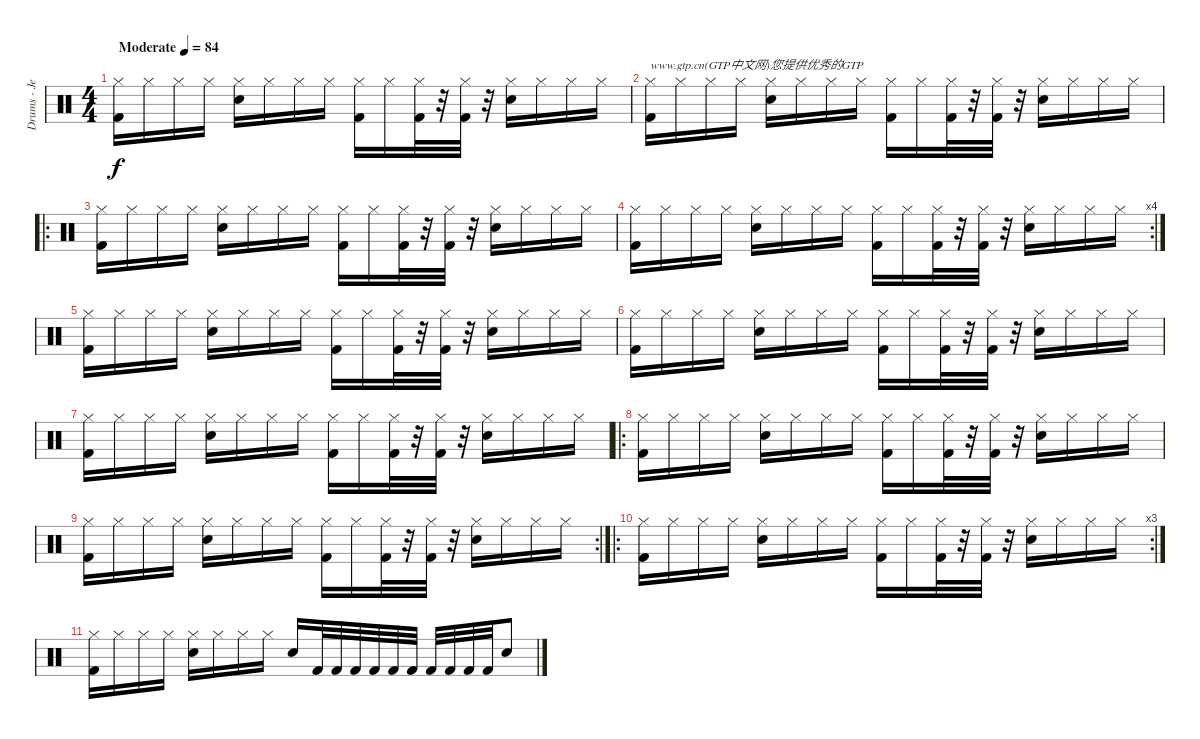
\track ("Drums - Jeff Campitelli" "Drums - Je") {instrument percussion}
\staff {score}
\articulation defaults
\ts (4 4)
\tempo (84 "Moderate")
\clef neutral
\ks c
("Kick (hit) 2" "Hi-Hat (closed)").16{dy f} "Hi-Hat (closed)".16 "Hi-Hat (closed)".16 "Hi-Hat (closed)".16 ("Electric Snare (hit)" "Hi-Hat (closed)").16 "Hi-Hat (closed)".16 "Hi-Hat (closed)".16 "Hi-Hat (closed)".16 ("Kick (hit) 2" "Hi-Hat (closed)").16 "Hi-Hat (closed)".16 ("Kick (hit) 2" "Hi-Hat (closed)").32 r.32 ("Kick (hit) 2" "Hi-Hat (closed)").32 r.32 ("Electric Snare (hit)" "Hi-Hat (closed)").16 "Hi-Hat (closed)".16 "Hi-Hat (closed)".16 "Hi-Hat (closed)".16 |
("Kick (hit) 2" "Hi-Hat (closed)").16{txt "www.gtp.cn(GTP中文网)您提供优秀的GTP"} "Hi-Hat (closed)".16 "Hi-Hat (closed)".16 "Hi-Hat (closed)".16 ("Electric Snare (hit)" "Hi-Hat (closed)").16 "Hi-Hat (closed)".16 "Hi-Hat (closed)".16 "Hi-Hat (closed)".16 ("Kick (hit) 2" "Hi-Hat (closed)").16 "Hi-Hat (closed)".16 ("Kick (hit) 2" "Hi-Hat (closed)").32 r.32 ("Kick (hit) 2" "Hi-Hat (closed)").32 r.32 ("Electric Snare (hit)" "Hi-Hat (closed)").16 "Hi-Hat (closed)".16 "Hi-Hat (closed)".16 "Hi-Hat (closed)".16 |
\ro
("Kick (hit) 2" "Hi-Hat (closed)").16 "Hi-Hat (closed)".16 "Hi-Hat (closed)".16 "Hi-Hat (closed)".16 ("Electric Snare (hit)" "Hi-Hat (closed)").16 "Hi-Hat (closed)".16 "Hi-Hat (closed)".16 "Hi-Hat (closed)".16 ("Kick (hit) 2" "Hi-Hat (closed)").16 "Hi-Hat (closed)".16 ("Kick (hit) 2" "Hi-Hat (closed)").32 r.32 ("Kick (hit) 2" "Hi-Hat (closed)").32 r.32 ("Electric Snare (hit)" "Hi-Hat (closed)").16 "Hi-Hat (closed)".16 "Hi-Hat (closed)".16 "Hi-Hat (closed)".16 |
\rc 4
("Kick (hit) 2" "Hi-Hat (closed)").16 "Hi-Hat (closed)".16 "Hi-Hat (closed)".16 "Hi-Hat (closed)".16 ("Electric Snare (hit)" "Hi-Hat (closed)").16 "Hi-Hat (closed)".16 "Hi-Hat (closed)".16 "Hi-Hat (closed)".16 ("Kick (hit) 2" "Hi-Hat (closed)").16 "Hi-Hat (closed)".16 ("Kick (hit) 2" "Hi-Hat (closed)").32 r.32 ("Kick (hit) 2" "Hi-Hat (closed)").32 r.32 ("Electric Snare (hit)" "Hi-Hat (closed)").16 "Hi-Hat (closed)".16 "Hi-Hat (closed)".16 "Hi-Hat (closed)".16 |
("Kick (hit) 2" "Hi-Hat (closed)").16 "Hi-Hat (closed)".16 "Hi-Hat (closed)".16 "Hi-Hat (closed)".16 ("Electric Snare (hit)" "Hi-Hat (closed)").16 "Hi-Hat (closed)".16 "Hi-Hat (closed)".16 "Hi-Hat (closed)".16 ("Kick (hit) 2" "Hi-Hat (closed)").16 "Hi-Hat (closed)".16 ("Kick (hit) 2" "Hi-Hat (closed)").32 r.32 ("Kick (hit) 2" "Hi-Hat (closed)").32 r.32 ("Electric Snare (hit)" "Hi-Hat (closed)").16 "Hi-Hat (closed)".16 "Hi-Hat (closed)".16 "Hi-Hat (closed)".16 |
("Kick (hit) 2" "Hi-Hat (closed)").16 "Hi-Hat (closed)".16 "Hi-Hat (closed)".16 "Hi-Hat (closed)".16 ("Electric Snare (hit)" "Hi-Hat (closed)").16 "Hi-Hat (closed)".16 "Hi-Hat (closed)".16 "Hi-Hat (closed)".16 ("Kick (hit) 2" "Hi-Hat (closed)").16 "Hi-Hat (closed)".16 ("Kick (hit) 2" "Hi-Hat (closed)").32 r.32 ("Kick (hit) 2" "Hi-Hat (closed)").32 r.32 ("Electric Snare (hit)" "Hi-Hat (closed)").16 "Hi-Hat (closed)".16 "Hi-Hat (closed)".16 "Hi-Hat (closed)".16 |
("Kick (hit) 2" "Hi-Hat (closed)").16 "Hi-Hat (closed)".16 "Hi-Hat (closed)".16 "Hi-Hat (closed)".16 ("Electric Snare (hit)" "Hi-Hat (closed)").16 "Hi-Hat (closed)".16 "Hi-Hat (closed)".16 "Hi-Hat (closed)".16 ("Kick (hit) 2" "Hi-Hat (closed)").16 "Hi-Hat (closed)".16 ("Kick (hit) 2" "Hi-Hat (closed)").32 r.32 ("Kick (hit) 2" "Hi-Hat (closed)").32 r.32 ("Electric Snare (hit)" "Hi-Hat (closed)").16 "Hi-Hat (closed)".16 "Hi-Hat (closed)".16 "Hi-Hat (closed)".16 |
\ro
("Kick (hit) 2" "Hi-Hat (closed)").16 "Hi-Hat (closed)".16 "Hi-Hat (closed)".16 "Hi-Hat (closed)".16 ("Electric Snare (hit)" "Hi-Hat (closed)").16 "Hi-Hat (closed)".16 "Hi-Hat (closed)".16 "Hi-Hat (closed)".16 ("Kick (hit) 2" "Hi-Hat (closed)").16 "Hi-Hat (closed)".16 ("Kick (hit) 2" "Hi-Hat (closed)").32 r.32 ("Kick (hit) 2" "Hi-Hat (closed)").32 r.32 ("Electric Snare (hit)" "Hi-Hat (closed)").16 "Hi-Hat (closed)".16 "Hi-Hat (closed)".16 "Hi-Hat (closed)".16 |
\rc 2
("Kick (hit) 2" "Hi-Hat (closed)").16 "Hi-Hat (closed)".16 "Hi-Hat (closed)".16 "Hi-Hat (closed)".16 ("Electric Snare (hit)" "Hi-Hat (closed)").16 "Hi-Hat (closed)".16 "Hi-Hat (closed)".16 "Hi-Hat (closed)".16 ("Kick (hit) 2" "Hi-Hat (closed)").16 "Hi-Hat (closed)".16 ("Kick (hit) 2" "Hi-Hat (closed)").32 r.32 ("Kick (hit) 2" "Hi-Hat (closed)").32 r.32 ("Electric Snare (hit)" "Hi-Hat (closed)").16 "Hi-Hat (closed)".16 "Hi-Hat (closed)".16 "Hi-Hat (closed)".16 |
\ro
\rc 3
("Kick (hit) 2" "Hi-Hat (closed)").16 "Hi-Hat (closed)".16 "Hi-Hat (closed)".16 "Hi-Hat (closed)".16 ("Electric Snare (hit)" "Hi-Hat (closed)").16 "Hi-Hat (closed)".16 "Hi-Hat (closed)".16 "Hi-Hat (closed)".16 ("Kick (hit) 2" "Hi-Hat (closed)").16 "Hi-Hat (closed)".16 ("Kick (hit) 2" "Hi-Hat (closed)").32 r.32 ("Kick (hit) 2" "Hi-Hat (closed)").32 r.32 ("Electric Snare (hit)" "Hi-Hat (closed)").16 "Hi-Hat (closed)".16 "Hi-Hat (closed)".16 "Hi-Hat (closed)".16 |
("Kick (hit) 2" "Hi-Hat (closed)").16 "Hi-Hat (closed)".16 "Hi-Hat (closed)".16 "Hi-Hat (closed)".16 ("Electric Snare (hit)" "Hi-Hat (closed)").16 "Hi-Hat (closed)".16 "Hi-Hat (closed)".16 "Hi-Hat (closed)".16 "Electric Snare (hit)".16 "Kick (hit) 2".32 "Kick (hit) 2".32 "Kick (hit) 2".32 "Kick (hit) 2".32 "Kick (hit) 2".32 "Kick (hit) 2".32 "Kick (hit) 2".32 "Kick (hit) 2".32 "Kick (hit) 2".32 "Kick (hit) 2".32 "Snare (hit) 2".8
